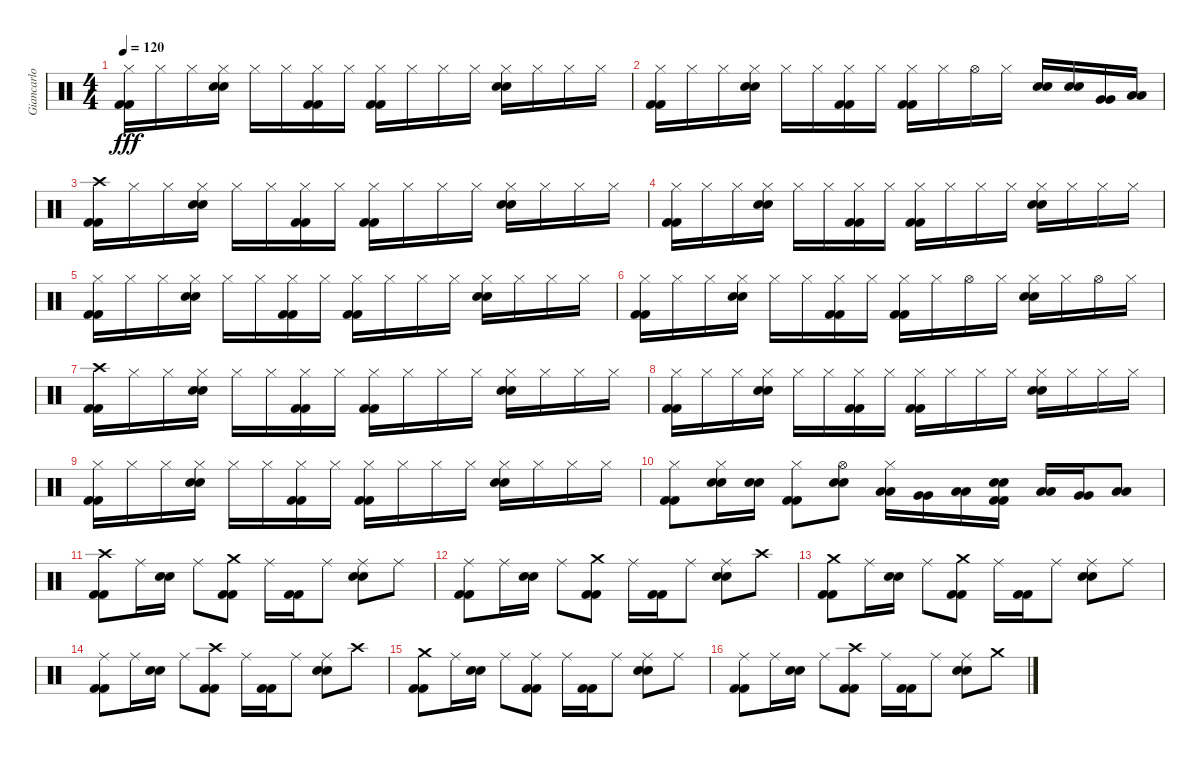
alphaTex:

\track ("Giancarlo Autenzio - Drums" "Giancarlo ") {instrument percussion}
\staff {score}
\articulation defaults
\ts (4 4)
\tempo 120
\clef neutral
\ks c
("Kick (hit) 2" "Kick (hit) 2" "Hi-Hat (closed)").16{dy fff} "Hi-Hat (closed)".16 "Hi-Hat (closed)".16 ("Electric Snare (hit)" "Electric Snare (hit)" "Hi-Hat (closed)").16 "Hi-Hat (closed)".16 "Hi-Hat (closed)".16 ("Kick (hit) 2" "Kick (hit) 2" "Hi-Hat (closed)").16 "Hi-Hat (closed)".16 ("Kick (hit) 2" "Kick (hit) 2" "Hi-Hat (closed)").16 "Hi-Hat (closed)".16 "Hi-Hat (closed)".16 "Hi-Hat (closed)".16 ("Electric Snare (hit)" "Electric Snare (hit)" "Hi-Hat (closed)").16 "Hi-Hat (closed)".16 "Hi-Hat (closed)".16 "Hi-Hat (closed)".16 |
("Kick (hit) 2" "Kick (hit) 2" "Hi-Hat (closed)").16 "Hi-Hat (closed)".16 "Hi-Hat (closed)".16 ("Electric Snare (hit)" "Electric Snare (hit)" "Hi-Hat (closed)").16 "Hi-Hat (closed)".16 "Hi-Hat (closed)".16 ("Kick (hit) 2" "Kick (hit) 2" "Hi-Hat (closed)").16 "Hi-Hat (closed)".16 ("Kick (hit) 2" "Kick (hit) 2" "Hi-Hat (closed)").16 "Hi-Hat (closed)".16 "Hi-Hat (open)".16 "Hi-Hat (closed)".16 ("Electric Snare (hit)" "Electric Snare (hit)").16 ("Electric Snare (hit)" "Electric Snare (hit)").16 ("Very Low Tom (hit)" "Very Low Tom (hit)").16 ("Low Floor Tom (hit)" "Low Floor Tom (hit)").16 |
("Kick (hit) 2" "Kick (hit) 2" "Crash high (hit)").16 "Hi-Hat (closed)".16 "Hi-Hat (closed)".16 ("Electric Snare (hit)" "Electric Snare (hit)" "Hi-Hat (closed)").16 "Hi-Hat (closed)".16 "Hi-Hat (closed)".16 ("Kick (hit) 2" "Kick (hit) 2" "Hi-Hat (closed)").16 "Hi-Hat (closed)".16 ("Kick (hit) 2" "Kick (hit) 2" "Hi-Hat (closed)").16 "Hi-Hat (closed)".16 "Hi-Hat (closed)".16 "Hi-Hat (closed)".16 ("Electric Snare (hit)" "Electric Snare (hit)" "Hi-Hat (closed)").16 "Hi-Hat (closed)".16 "Hi-Hat (closed)".16 "Hi-Hat (closed)".16 |
("Kick (hit) 2" "Kick (hit) 2" "Hi-Hat (closed)").16 "Hi-Hat (closed)".16 "Hi-Hat (closed)".16 ("Electric Snare (hit)" "Electric Snare (hit)" "Hi-Hat (closed)").16 "Hi-Hat (closed)".16 "Hi-Hat (closed)".16 ("Kick (hit) 2" "Kick (hit) 2" "Hi-Hat (closed)").16 "Hi-Hat (closed)".16 ("Kick (hit) 2" "Kick (hit) 2" "Hi-Hat (closed)").16 "Hi-Hat (closed)".16 "Hi-Hat (closed)".16 "Hi-Hat (closed)".16 ("Electric Snare (hit)" "Electric Snare (hit)" "Hi-Hat (closed)").16 "Hi-Hat (closed)".16 "Hi-Hat (closed)".16 "Hi-Hat (closed)".16 |
("Kick (hit) 2" "Kick (hit) 2" "Hi-Hat (closed)").16 "Hi-Hat (closed)".16 "Hi-Hat (closed)".16 ("Electric Snare (hit)" "Electric Snare (hit)" "Hi-Hat (closed)").16 "Hi-Hat (closed)".16 "Hi-Hat (closed)".16 ("Kick (hit) 2" "Kick (hit) 2" "Hi-Hat (closed)").16 "Hi-Hat (closed)".16 ("Kick (hit) 2" "Kick (hit) 2" "Hi-Hat (closed)").16 "Hi-Hat (closed)".16 "Hi-Hat (closed)".16 "Hi-Hat (closed)".16 ("Electric Snare (hit)" "Electric Snare (hit)" "Hi-Hat (closed)").16 "Hi-Hat (closed)".16 "Hi-Hat (closed)".16 "Hi-Hat (closed)".16 |
("Kick (hit) 2" "Kick (hit) 2" "Hi-Hat (closed)").16 "Hi-Hat (closed)".16 "Hi-Hat (closed)".16 ("Electric Snare (hit)" "Electric Snare (hit)" "Hi-Hat (closed)").16 "Hi-Hat (closed)".16 "Hi-Hat (closed)".16 ("Kick (hit) 2" "Kick (hit) 2" "Hi-Hat (closed)").16 "Hi-Hat (closed)".16 ("Kick (hit) 2" "Kick (hit) 2" "Hi-Hat (closed)").16 "Hi-Hat (closed)".16 "Hi-Hat (open)".16 "Hi-Hat (closed)".16 ("Electric Snare (hit)" "Electric Snare (hit)" "Hi-Hat (closed)").16 "Hi-Hat (closed)".16 "Hi-Hat (open)".16 "Hi-Hat (closed)".16 |
("Kick (hit) 2" "Kick (hit) 2" "Crash high (hit)").16 "Hi-Hat (closed)".16 "Hi-Hat (closed)".16 ("Electric Snare (hit)" "Electric Snare (hit)" "Hi-Hat (closed)").16 "Hi-Hat (closed)".16 "Hi-Hat (closed)".16 ("Kick (hit) 2" "Kick (hit) 2" "Hi-Hat (closed)").16 "Hi-Hat (closed)".16 ("Kick (hit) 2" "Kick (hit) 2" "Hi-Hat (closed)").16 "Hi-Hat (closed)".16 "Hi-Hat (closed)".16 "Hi-Hat (closed)".16 ("Electric Snare (hit)" "Electric Snare (hit)" "Hi-Hat (closed)").16 "Hi-Hat (closed)".16 "Hi-Hat (closed)".16 "Hi-Hat (closed)".16 |
("Kick (hit) 2" "Kick (hit) 2" "Hi-Hat (closed)").16 "Hi-Hat (closed)".16 "Hi-Hat (closed)".16 ("Electric Snare (hit)" "Electric Snare (hit)" "Hi-Hat (closed)").16 "Hi-Hat (closed)".16 "Hi-Hat (closed)".16 ("Kick (hit) 2" "Kick (hit) 2" "Hi-Hat (closed)").16 "Hi-Hat (closed)".16 ("Kick (hit) 2" "Kick (hit) 2" "Hi-Hat (closed)").16 "Hi-Hat (closed)".16 "Hi-Hat (closed)".16 "Hi-Hat (closed)".16 ("Electric Snare (hit)" "Electric Snare (hit)" "Hi-Hat (closed)").16 "Hi-Hat (closed)".16 "Hi-Hat (closed)".16 "Hi-Hat (closed)".16 |
("Kick (hit) 2" "Kick (hit) 2" "Hi-Hat (closed)").16 "Hi-Hat (closed)".16 "Hi-Hat (closed)".16 ("Electric Snare (hit)" "Electric Snare (hit)" "Hi-Hat (closed)").16 "Hi-Hat (closed)".16 "Hi-Hat (closed)".16 ("Kick (hit) 2" "Kick (hit) 2" "Hi-Hat (closed)").16 "Hi-Hat (closed)".16 ("Kick (hit) 2" "Kick (hit) 2" "Hi-Hat (closed)").16 "Hi-Hat (closed)".16 "Hi-Hat (closed)".16 "Hi-Hat (closed)".16 ("Electric Snare (hit)" "Electric Snare (hit)" "Hi-Hat (closed)").16 "Hi-Hat (closed)".16 "Hi-Hat (closed)".16 "Hi-Hat (closed)".16 |
("Kick (hit) 2" "Kick (hit) 2" "Hi-Hat (closed)").8 ("Electric Snare (hit)" "Electric Snare (hit)" "Hi-Hat (closed)").16 ("Electric Snare (hit)" "Electric Snare (hit)").16 ("Kick (hit) 2" "Kick (hit) 2" "Hi-Hat (closed)").8 ("Electric Snare (hit)" "Electric Snare (hit)" "Hi-Hat (open)").8 ("Low Tom (hit)" "Low Tom (hit)" "Hi-Hat (closed)").16 ("Very Low Tom (hit)" "Very Low Tom (hit)").16 ("Low Floor Tom (hit)" "Low Floor Tom (hit)").16 ("Kick (hit) 2" "Kick (hit) 2" "Electric Snare (hit)" "Electric Snare (hit)").16 ("Low Tom (hit)" "Low Tom (hit)").16 ("Very Low Tom (hit)" "Very Low Tom (hit)").16 ("Low Floor Tom (hit)" "Low Floor Tom (hit)").8 |
("Kick (hit) 2" "Kick (hit) 2" "Crash high (hit)").8 "Ride (middle)".16 ("Electric Snare (hit)" "Electric Snare (hit)").16 "Ride (middle)".8 ("Kick (hit) 2" "Kick (hit) 2" "Crash medium (hit)").8 "Ride (middle)".16 ("Kick (hit) 2" "Kick (hit) 2").16 "Ride (middle)".8 ("Electric Snare (hit)" "Electric Snare (hit)" "Ride (middle)").8 "Ride (middle)".8 |
("Kick (hit) 2" "Kick (hit) 2" "Ride (middle)").8 "Ride (middle)".16 ("Electric Snare (hit)" "Electric Snare (hit)").16 "Ride (middle)".8 ("Kick (hit) 2" "Kick (hit) 2" "Crash medium (hit)").8 "Ride (middle)".16 ("Kick (hit) 2" "Kick (hit) 2").16 "Ride (middle)".8 ("Electric Snare (hit)" "Electric Snare (hit)" "Ride (middle)").8 "Crash high (hit)".8 |
("Kick (hit) 2" "Kick (hit) 2" "Crash medium (hit)").8 "Ride (middle)".16 ("Electric Snare (hit)" "Electric Snare (hit)").16 "Ride (middle)".8 ("Kick (hit) 2" "Kick (hit) 2" "Crash medium (hit)").8 "Ride (middle)".16 ("Kick (hit) 2" "Kick (hit) 2").16 "Ride (middle)".8 ("Electric Snare (hit)" "Electric Snare (hit)" "Ride (middle)").8 "Ride (middle)".8 |
("Kick (hit) 2" "Kick (hit) 2" "Ride (middle)").8 "Ride (middle)".16 ("Electric Snare (hit)" "Electric Snare (hit)").16 "Ride (middle)".8 ("Kick (hit) 2" "Kick (hit) 2" "Crash high (hit)").8 "Ride (middle)".16 ("Kick (hit) 2" "Kick (hit) 2").16 "Ride (middle)".8 ("Electric Snare (hit)" "Electric Snare (hit)" "Ride (middle)").8 "Crash high (hit)".8 |
("Kick (hit) 2" "Kick (hit) 2" "Crash medium (hit)").8 "Ride (middle)".16 ("Electric Snare (hit)" "Electric Snare (hit)").16 "Ride (middle)".8 ("Kick (hit) 2" "Kick (hit) 2" "Ride (middle)").8 "Ride (middle)".16 ("Kick (hit) 2" "Kick (hit) 2").16 "Ride (middle)".8 ("Electric Snare (hit)" "Electric Snare (hit)" "Ride (middle)").8 "Ride (middle)".8 |
("Kick (hit) 2" "Kick (hit) 2" "Ride (middle)").8 "Ride (middle)".16 ("Electric Snare (hit)" "Electric Snare (hit)").16 "Ride (middle)".8 ("Kick (hit) 2" "Kick (hit) 2" "Crash high (hit)").8 "Ride (middle)".16 ("Kick (hit) 2" "Kick (hit) 2").16 "Ride (middle)".8 ("Electric Snare (hit)" "Electric Snare (hit)" "Ride (middle)").8 "Crash medium (hit)".8
